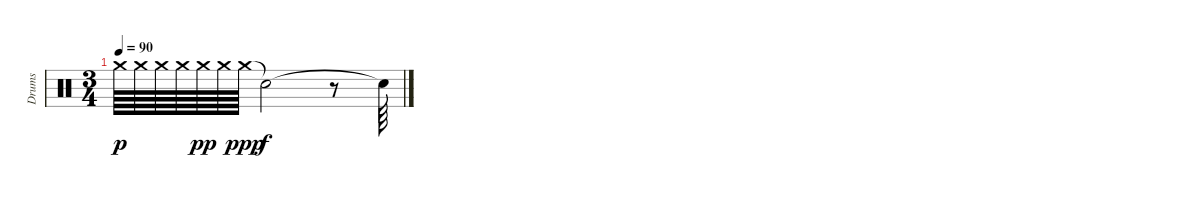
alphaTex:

\track ("Drums" "Drums") {instrument percussion}
\staff {score}
\articulation defaults
\ts (3 4)
\tempo 90
\clef neutral
\ks c "Crash medium (hit)".64{dy p} "Crash medium (hit)".64 "Crash medium (hit)".64 "Crash medium (hit)".64 "Crash medium (hit)".64{dy pp} "Crash medium (hit)".64 "Crash medium (hit)".64{dy ppp} "Snare (hit)"{t}.2{dy f}
r.8 "Snare (hit)"{t}.64
